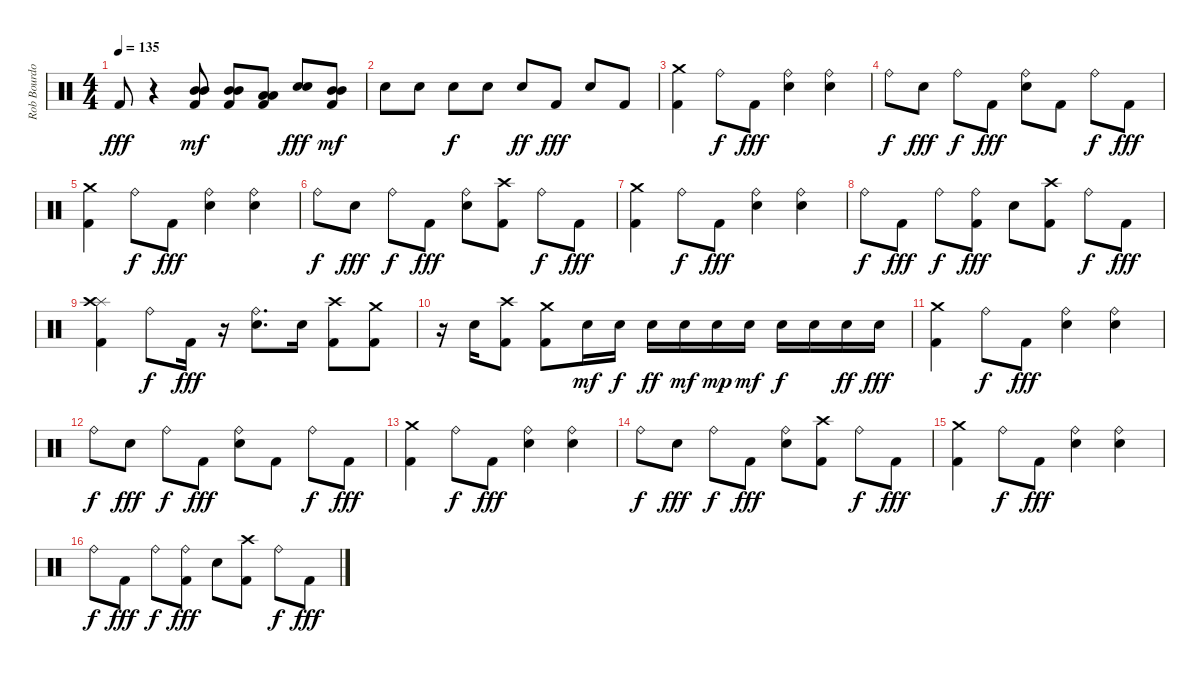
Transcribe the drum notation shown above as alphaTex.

\track ("Rob Bourdon - Beats & Drums" "Rob Bourdo") {instrument percussion}
\staff {score}
\articulation defaults
\ts (4 4)
\tempo 135
\clef neutral
\ks c "Kick (hit) 2".8{dy fff}
r.4 ("Mid Tom (hit)" "Mid Tom (hit)" "Kick (hit) 2").8{dy mf} ("Mid Tom (hit)" "Mid Tom (hit)" "Kick (hit) 2").8 ("Low Tom (hit)" "Low Tom (hit)" "Kick (hit) 2").8 ("Electric Snare (hit)" "Electric Snare (hit)").8{dy fff} ("Mid Tom (hit)" "Mid Tom (hit)" "Kick (hit) 2").8{dy mf} |
"Electric Snare (hit)".8 "Electric Snare (hit)".8 "Electric Snare (hit)".8{dy f} "Electric Snare (hit)".8 "Electric Snare (hit)".8{dy ff} "Kick (hit) 2".8{dy fff} "Electric Snare (hit)".8 "Kick (hit) 2".8 |
("Crash medium (hit)" "Kick (hit) 2").4 "Ride (bell)".8{dy f} "Kick (hit) 2".8{dy fff} ("Ride (bell)" "Electric Snare (hit)").4 ("Ride (bell)" "Electric Snare (hit)").4 |
"Ride (bell)".8{dy f} "Electric Snare (hit)".8{dy fff} "Ride (bell)".8{dy f} "Kick (hit) 2".8{dy fff} ("Ride (bell)" "Electric Snare (hit)").8 "Kick (hit) 2".8 "Ride (bell)".8{dy f} "Kick (hit) 2".8{dy fff} |
("Crash medium (hit)" "Kick (hit) 2").4 "Ride (bell)".8{dy f} "Kick (hit) 2".8{dy fff} ("Ride (bell)" "Electric Snare (hit)").4 ("Ride (bell)" "Electric Snare (hit)").4 |
"Ride (bell)".8{dy f} "Electric Snare (hit)".8{dy fff} "Ride (bell)".8{dy f} "Kick (hit) 2".8{dy fff} ("Ride (bell)" "Electric Snare (hit)").8 ("Crash high (hit)" "Kick (hit) 2").8 "Ride (bell)".8{dy f} "Kick (hit) 2".8{dy fff} |
("Crash medium (hit)" "Kick (hit) 2").4 "Ride (bell)".8{dy f} "Kick (hit) 2".8{dy fff} ("Ride (bell)" "Electric Snare (hit)").4 ("Ride (bell)" "Electric Snare (hit)").4 |
"Ride (bell)".8{dy f} "Kick (hit) 2".8{dy fff} "Ride (bell)".8{dy f} ("Ride (bell)" "Kick (hit) 2").8{dy fff} "Electric Snare (hit)".8 ("Crash high (hit)" "Kick (hit) 2").8 "Ride (bell)".8{dy f} "Kick (hit) 2".8{dy fff} |
("Splash (hit)" "Crash high (hit)" "Kick (hit) 2").4 "Ride (bell)".8{dy f} "Kick (hit) 2".16{dy fff} r.16 ("Ride (bell)" "Electric Snare (hit)").8{d} "Electric Snare (hit)".16 ("Crash high (hit)" "Kick (hit) 2").8 ("Crash medium (hit)" "Kick (hit) 2").8 |
r.16 "Electric Snare (hit)".16 ("Crash high (hit)" "Kick (hit) 2").8 ("Crash medium (hit)" "Kick (hit) 2").8 "Electric Snare (hit)".16{dy mf} "Electric Snare (hit)".16{dy f} "Electric Snare (hit)".16{dy ff} "Electric Snare (hit)".16{dy mf} "Electric Snare (hit)".16{dy mp} "Electric Snare (hit)".16{dy mf} "Electric Snare (hit)".16{dy f} "Electric Snare (hit)".16 "Electric Snare (hit)".16{dy ff} "Electric Snare (hit)".16{dy fff} |
("Crash medium (hit)" "Kick (hit) 2").4 "Ride (bell)".8{dy f} "Kick (hit) 2".8{dy fff} ("Ride (bell)" "Electric Snare (hit)").4 ("Ride (bell)" "Electric Snare (hit)").4 |
"Ride (bell)".8{dy f} "Electric Snare (hit)".8{dy fff} "Ride (bell)".8{dy f} "Kick (hit) 2".8{dy fff} ("Ride (bell)" "Electric Snare (hit)").8 "Kick (hit) 2".8 "Ride (bell)".8{dy f} "Kick (hit) 2".8{dy fff} |
("Crash medium (hit)" "Kick (hit) 2").4 "Ride (bell)".8{dy f} "Kick (hit) 2".8{dy fff} ("Ride (bell)" "Electric Snare (hit)").4 ("Ride (bell)" "Electric Snare (hit)").4 |
"Ride (bell)".8{dy f} "Electric Snare (hit)".8{dy fff} "Ride (bell)".8{dy f} "Kick (hit) 2".8{dy fff} ("Ride (bell)" "Electric Snare (hit)").8 ("Crash high (hit)" "Kick (hit) 2").8 "Ride (bell)".8{dy f} "Kick (hit) 2".8{dy fff} |
("Crash medium (hit)" "Kick (hit) 2").4 "Ride (bell)".8{dy f} "Kick (hit) 2".8{dy fff} ("Ride (bell)" "Electric Snare (hit)").4 ("Ride (bell)" "Electric Snare (hit)").4 |
"Ride (bell)".8{dy f} "Kick (hit) 2".8{dy fff} "Ride (bell)".8{dy f} ("Ride (bell)" "Kick (hit) 2").8{dy fff} "Electric Snare (hit)".8 ("Crash high (hit)" "Kick (hit) 2").8 "Ride (bell)".8{dy f} "Kick (hit) 2".8{dy fff}
